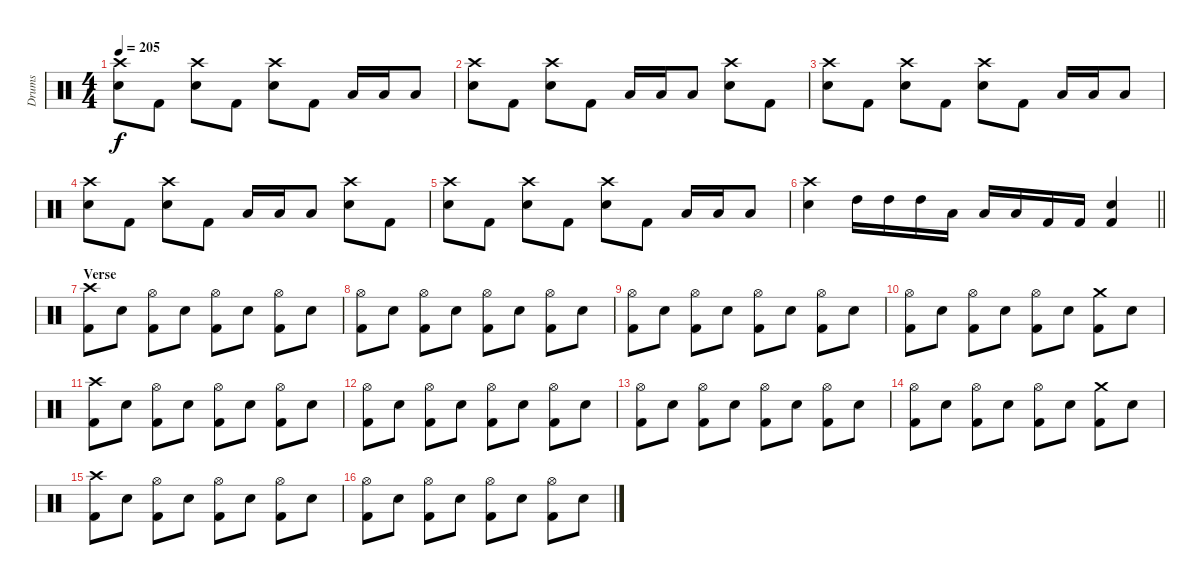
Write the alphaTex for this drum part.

\track ("Drums" "Drums") {instrument percussion}
\staff {score}
\articulation defaults
\ts (4 4)
\tempo 205
\clef neutral
\ks c
("Crash high (hit)" "Electric Snare (hit)").8{dy f} "Kick (hit) 2".8 ("Crash high (hit)" "Electric Snare (hit)").8 "Kick (hit) 2".8 ("Crash high (hit)" "Electric Snare (hit)").8 "Kick (hit) 2".8 "Low Tom (hit)".16 "Low Tom (hit)".16 "Low Tom (hit)".8 |
("Crash high (hit)" "Electric Snare (hit)").8 "Kick (hit) 2".8 ("Crash high (hit)" "Electric Snare (hit)").8 "Kick (hit) 2".8 "Low Tom (hit)".16 "Low Tom (hit)".16 "Low Tom (hit)".8 ("Crash high (hit)" "Electric Snare (hit)").8 "Kick (hit) 2".8 |
("Crash high (hit)" "Electric Snare (hit)").8 "Kick (hit) 2".8 ("Crash high (hit)" "Electric Snare (hit)").8 "Kick (hit) 2".8 ("Crash high (hit)" "Electric Snare (hit)").8 "Kick (hit) 2".8 "Low Tom (hit)".16 "Low Tom (hit)".16 "Low Tom (hit)".8 |
("Crash high (hit)" "Electric Snare (hit)").8 "Kick (hit) 2".8 ("Crash high (hit)" "Electric Snare (hit)").8 "Kick (hit) 2".8 "Low Tom (hit)".16 "Low Tom (hit)".16 "Low Tom (hit)".8 ("Crash high (hit)" "Electric Snare (hit)").8 "Kick (hit) 2".8 |
("Crash high (hit)" "Electric Snare (hit)").8 "Kick (hit) 2".8 ("Crash high (hit)" "Electric Snare (hit)").8 "Kick (hit) 2".8 ("Crash high (hit)" "Electric Snare (hit)").8 "Kick (hit) 2".8 "Low Tom (hit)".16 "Low Tom (hit)".16 "Low Tom (hit)".8 |
\barLineRight lightlight
("Crash high (hit)" "Electric Snare (hit)").4 "High Tom (hit)".16 "High Tom (hit)".16 "High Tom (hit)".16 "Low Tom (hit)".16 "Low Tom (hit)".16 "Low Tom (hit)".16 "Kick (hit) 2".16 "Kick (hit) 2".16 ("Electric Snare (hit)" "Kick (hit) 2").4 |
\section ("" "Verse")
("Crash high (hit)" "Kick (hit) 2").8 "Electric Snare (hit)".8 ("Hi-Hat (open)" "Kick (hit) 2").8 "Electric Snare (hit)".8 ("Hi-Hat (open)" "Kick (hit) 2").8 "Electric Snare (hit)".8 ("Hi-Hat (open)" "Kick (hit) 2").8 "Electric Snare (hit)".8 |
("Hi-Hat (open)" "Kick (hit) 2").8 "Electric Snare (hit)".8 ("Hi-Hat (open)" "Kick (hit) 2").8 "Electric Snare (hit)".8 ("Hi-Hat (open)" "Kick (hit) 2").8 "Electric Snare (hit)".8 ("Hi-Hat (open)" "Kick (hit) 2").8 "Electric Snare (hit)".8 |
("Hi-Hat (open)" "Kick (hit) 2").8 "Electric Snare (hit)".8 ("Hi-Hat (open)" "Kick (hit) 2").8 "Electric Snare (hit)".8 ("Hi-Hat (open)" "Kick (hit) 2").8 "Electric Snare (hit)".8 ("Hi-Hat (open)" "Kick (hit) 2").8 "Electric Snare (hit)".8 |
("Hi-Hat (open)" "Kick (hit) 2").8 "Electric Snare (hit)".8 ("Hi-Hat (open)" "Kick (hit) 2").8 "Electric Snare (hit)".8 ("Hi-Hat (open)" "Kick (hit) 2").8 "Electric Snare (hit)".8 ("Crash medium (hit)" "Kick (hit) 2").8 "Electric Snare (hit)".8 |
("Crash high (hit)" "Kick (hit) 2").8 "Electric Snare (hit)".8 ("Hi-Hat (open)" "Kick (hit) 2").8 "Electric Snare (hit)".8 ("Hi-Hat (open)" "Kick (hit) 2").8 "Electric Snare (hit)".8 ("Hi-Hat (open)" "Kick (hit) 2").8 "Electric Snare (hit)".8 |
("Hi-Hat (open)" "Kick (hit) 2").8 "Electric Snare (hit)".8 ("Hi-Hat (open)" "Kick (hit) 2").8 "Electric Snare (hit)".8 ("Hi-Hat (open)" "Kick (hit) 2").8 "Electric Snare (hit)".8 ("Hi-Hat (open)" "Kick (hit) 2").8 "Electric Snare (hit)".8 |
("Hi-Hat (open)" "Kick (hit) 2").8 "Electric Snare (hit)".8 ("Hi-Hat (open)" "Kick (hit) 2").8 "Electric Snare (hit)".8 ("Hi-Hat (open)" "Kick (hit) 2").8 "Electric Snare (hit)".8 ("Hi-Hat (open)" "Kick (hit) 2").8 "Electric Snare (hit)".8 |
("Hi-Hat (open)" "Kick (hit) 2").8 "Electric Snare (hit)".8 ("Hi-Hat (open)" "Kick (hit) 2").8 "Electric Snare (hit)".8 ("Hi-Hat (open)" "Kick (hit) 2").8 "Electric Snare (hit)".8 ("Crash medium (hit)" "Kick (hit) 2").8 "Electric Snare (hit)".8 |
("Crash high (hit)" "Kick (hit) 2").8 "Electric Snare (hit)".8 ("Hi-Hat (open)" "Kick (hit) 2").8 "Electric Snare (hit)".8 ("Hi-Hat (open)" "Kick (hit) 2").8 "Electric Snare (hit)".8 ("Hi-Hat (open)" "Kick (hit) 2").8 "Electric Snare (hit)".8 |
("Hi-Hat (open)" "Kick (hit) 2").8 "Electric Snare (hit)".8 ("Hi-Hat (open)" "Kick (hit) 2").8 "Electric Snare (hit)".8 ("Hi-Hat (open)" "Kick (hit) 2").8 "Electric Snare (hit)".8 ("Hi-Hat (open)" "Kick (hit) 2").8 "Electric Snare (hit)".8
